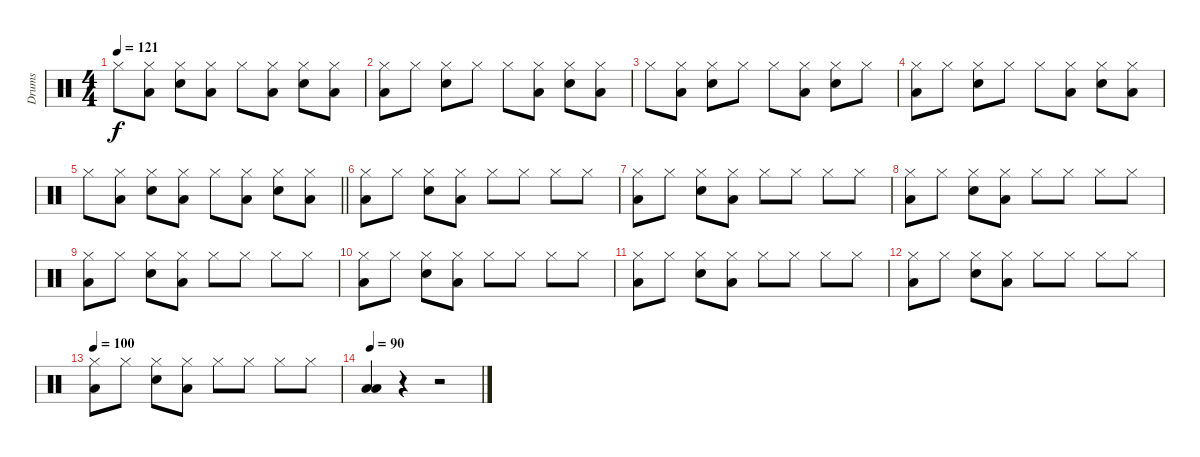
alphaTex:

\track ("Drums" "Drums") {instrument percussion}
\staff {score}
\articulation defaults
\ts (4 4)
\tempo 121
\clef neutral
\ks c "Hi-Hat (closed)".8{dy f}
("Hi-Hat (closed)" "Low Floor Tom (hit)").8 ("Hi-Hat (closed)" "Electric Snare (hit)").8 ("Hi-Hat (closed)" "Low Floor Tom (hit)").8 "Hi-Hat (closed)".8 ("Hi-Hat (closed)" "Low Floor Tom (hit)").8 ("Hi-Hat (closed)" "Electric Snare (hit)").8 ("Hi-Hat (closed)" "Low Floor Tom (hit)").8 |
("Hi-Hat (closed)" "Low Floor Tom (hit)").8 "Hi-Hat (closed)".8 ("Hi-Hat (closed)" "Electric Snare (hit)").8 "Hi-Hat (closed)".8 "Hi-Hat (closed)".8 ("Hi-Hat (closed)" "Low Floor Tom (hit)").8 ("Hi-Hat (closed)" "Electric Snare (hit)").8 ("Hi-Hat (closed)" "Low Floor Tom (hit)").8 |
"Hi-Hat (closed)".8 ("Hi-Hat (closed)" "Low Floor Tom (hit)").8 ("Hi-Hat (closed)" "Electric Snare (hit)").8 "Hi-Hat (closed)".8 "Hi-Hat (closed)".8 ("Hi-Hat (closed)" "Low Floor Tom (hit)").8 ("Hi-Hat (closed)" "Electric Snare (hit)").8 "Hi-Hat (closed)".8 |
("Hi-Hat (closed)" "Low Floor Tom (hit)").8 "Hi-Hat (closed)".8 ("Hi-Hat (closed)" "Electric Snare (hit)").8 "Hi-Hat (closed)".8 "Hi-Hat (closed)".8 ("Hi-Hat (closed)" "Low Floor Tom (hit)").8 ("Hi-Hat (closed)" "Electric Snare (hit)").8 ("Hi-Hat (closed)" "Low Floor Tom (hit)").8 |
\barLineRight lightlight "Hi-Hat (closed)".8
("Hi-Hat (closed)" "Low Floor Tom (hit)").8 ("Hi-Hat (closed)" "Electric Snare (hit)").8 ("Hi-Hat (closed)" "Low Floor Tom (hit)").8 "Hi-Hat (closed)".8 ("Hi-Hat (closed)" "Low Floor Tom (hit)").8 ("Hi-Hat (closed)" "Electric Snare (hit)").8 ("Hi-Hat (closed)" "Low Floor Tom (hit)").8 |
("Hi-Hat (closed)" "Low Floor Tom (hit)").8 "Hi-Hat (closed)".8 ("Hi-Hat (closed)" "Electric Snare (hit)").8 ("Hi-Hat (closed)" "Low Floor Tom (hit)").8 "Hi-Hat (closed)".8 "Hi-Hat (closed)".8 "Hi-Hat (closed)".8 "Hi-Hat (closed)".8 |
("Hi-Hat (closed)" "Low Floor Tom (hit)").8 "Hi-Hat (closed)".8 ("Hi-Hat (closed)" "Electric Snare (hit)").8 ("Hi-Hat (closed)" "Low Floor Tom (hit)").8 "Hi-Hat (closed)".8 "Hi-Hat (closed)".8 "Hi-Hat (closed)".8 "Hi-Hat (closed)".8 |
("Hi-Hat (closed)" "Low Floor Tom (hit)").8 "Hi-Hat (closed)".8 ("Hi-Hat (closed)" "Electric Snare (hit)").8 ("Hi-Hat (closed)" "Low Floor Tom (hit)").8 "Hi-Hat (closed)".8 "Hi-Hat (closed)".8 "Hi-Hat (closed)".8 "Hi-Hat (closed)".8 |
("Hi-Hat (closed)" "Low Floor Tom (hit)").8 "Hi-Hat (closed)".8 ("Hi-Hat (closed)" "Electric Snare (hit)").8 ("Hi-Hat (closed)" "Low Floor Tom (hit)").8 "Hi-Hat (closed)".8 "Hi-Hat (closed)".8 "Hi-Hat (closed)".8 "Hi-Hat (closed)".8 |
("Hi-Hat (closed)" "Low Floor Tom (hit)").8 "Hi-Hat (closed)".8 ("Hi-Hat (closed)" "Electric Snare (hit)").8 ("Hi-Hat (closed)" "Low Floor Tom (hit)").8 "Hi-Hat (closed)".8 "Hi-Hat (closed)".8 "Hi-Hat (closed)".8 "Hi-Hat (closed)".8 |
("Hi-Hat (closed)" "Low Floor Tom (hit)").8 "Hi-Hat (closed)".8 ("Hi-Hat (closed)" "Electric Snare (hit)").8 ("Hi-Hat (closed)" "Low Floor Tom (hit)").8 "Hi-Hat (closed)".8 "Hi-Hat (closed)".8 "Hi-Hat (closed)".8 "Hi-Hat (closed)".8 |
("Hi-Hat (closed)" "Low Floor Tom (hit)").8 "Hi-Hat (closed)".8 ("Hi-Hat (closed)" "Electric Snare (hit)").8 ("Hi-Hat (closed)" "Low Floor Tom (hit)").8 "Hi-Hat (closed)".8 "Hi-Hat (closed)".8 "Hi-Hat (closed)".8 "Hi-Hat (closed)".8 |
\tempo 100
("Hi-Hat (closed)" "Low Floor Tom (hit)").8 "Hi-Hat (closed)".8 ("Hi-Hat (closed)" "Electric Snare (hit)").8 ("Hi-Hat (closed)" "Low Floor Tom (hit)").8 "Hi-Hat (closed)".8 "Hi-Hat (closed)".8 "Hi-Hat (closed)".8 "Hi-Hat (closed)".8 |
\tempo 90
("Low Tom (hit)" "Low Floor Tom (hit)").4 r.4 r.2
